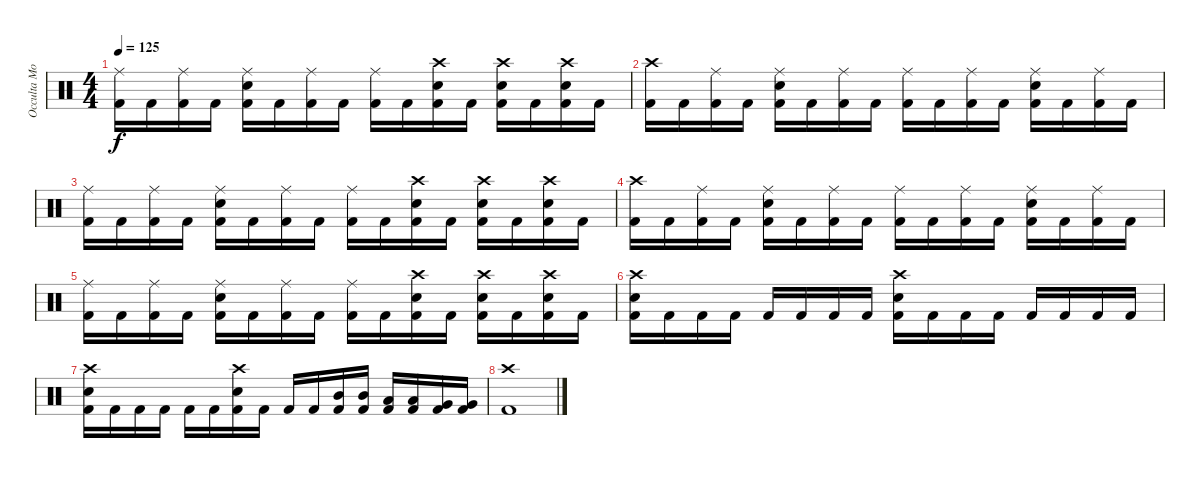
\track ("Occulta Mors" "Occulta Mo") {instrument percussion}
\staff {score}
\articulation defaults
\ts (4 4)
\tempo 125
\clef neutral
\ks c
("Ride (middle)" "Kick (hit) 2").16{dy f} "Kick (hit) 2".16 ("Ride (middle)" "Kick (hit) 2").16 "Kick (hit) 2".16 ("Ride (middle)" "Snare (hit) 2" "Kick (hit) 2").16 "Kick (hit) 2".16 ("Ride (middle)" "Kick (hit) 2").16 "Kick (hit) 2".16 ("Ride (middle)" "Kick (hit) 2").16 "Kick (hit) 2".16 ("Crash high (hit)" "Snare (hit) 2" "Kick (hit) 2").16 "Kick (hit) 2".16 ("Crash high (hit)" "Snare (hit) 2" "Kick (hit) 2").16 "Kick (hit) 2".16 ("Crash high (hit)" "Snare (hit) 2" "Kick (hit) 2").16 "Kick (hit) 2".16 |
("Crash high (hit)" "Kick (hit) 2").16 "Kick (hit) 2".16 ("Ride (middle)" "Kick (hit) 2").16 "Kick (hit) 2".16 ("Ride (middle)" "Snare (hit) 2" "Kick (hit) 2").16 "Kick (hit) 2".16 ("Ride (middle)" "Kick (hit) 2").16 "Kick (hit) 2".16 ("Ride (middle)" "Kick (hit) 2").16 "Kick (hit) 2".16 ("Ride (middle)" "Kick (hit) 2").16 "Kick (hit) 2".16 ("Ride (middle)" "Snare (hit) 2" "Kick (hit) 2").16 "Kick (hit) 2".16 ("Ride (middle)" "Kick (hit) 2").16 "Kick (hit) 2".16 |
("Ride (middle)" "Kick (hit) 2").16 "Kick (hit) 2".16 ("Ride (middle)" "Kick (hit) 2").16 "Kick (hit) 2".16 ("Ride (middle)" "Snare (hit) 2" "Kick (hit) 2").16 "Kick (hit) 2".16 ("Ride (middle)" "Kick (hit) 2").16 "Kick (hit) 2".16 ("Ride (middle)" "Kick (hit) 2").16 "Kick (hit) 2".16 ("Crash high (hit)" "Snare (hit) 2" "Kick (hit) 2").16 "Kick (hit) 2".16 ("Crash high (hit)" "Snare (hit) 2" "Kick (hit) 2").16 "Kick (hit) 2".16 ("Crash high (hit)" "Snare (hit) 2" "Kick (hit) 2").16 "Kick (hit) 2".16 |
("Crash high (hit)" "Kick (hit) 2").16 "Kick (hit) 2".16 ("Ride (middle)" "Kick (hit) 2").16 "Kick (hit) 2".16 ("Ride (middle)" "Snare (hit) 2" "Kick (hit) 2").16 "Kick (hit) 2".16 ("Ride (middle)" "Kick (hit) 2").16 "Kick (hit) 2".16 ("Ride (middle)" "Kick (hit) 2").16 "Kick (hit) 2".16 ("Ride (middle)" "Kick (hit) 2").16 "Kick (hit) 2".16 ("Ride (middle)" "Snare (hit) 2" "Kick (hit) 2").16 "Kick (hit) 2".16 ("Ride (middle)" "Kick (hit) 2").16 "Kick (hit) 2".16 |
("Ride (middle)" "Kick (hit) 2").16 "Kick (hit) 2".16 ("Ride (middle)" "Kick (hit) 2").16 "Kick (hit) 2".16 ("Ride (middle)" "Snare (hit) 2" "Kick (hit) 2").16 "Kick (hit) 2".16 ("Ride (middle)" "Kick (hit) 2").16 "Kick (hit) 2".16 ("Ride (middle)" "Kick (hit) 2").16 "Kick (hit) 2".16 ("Crash high (hit)" "Snare (hit) 2" "Kick (hit) 2").16 "Kick (hit) 2".16 ("Crash high (hit)" "Snare (hit) 2" "Kick (hit) 2").16 "Kick (hit) 2".16 ("Crash high (hit)" "Snare (hit) 2" "Kick (hit) 2").16 "Kick (hit) 2".16 |
("Crash high (hit)" "Snare (hit) 2" "Kick (hit) 2").16 "Kick (hit) 2".16 "Kick (hit) 2".16 "Kick (hit) 2".16 "Kick (hit) 2".16 "Kick (hit) 2".16 "Kick (hit) 2".16 "Kick (hit) 2".16 ("Crash high (hit)" "Snare (hit) 2" "Kick (hit) 2").16 "Kick (hit) 2".16 "Kick (hit) 2".16 "Kick (hit) 2".16 "Kick (hit) 2".16 "Kick (hit) 2".16 "Kick (hit) 2".16 "Kick (hit) 2".16 |
("Crash high (hit)" "Snare (hit) 2" "Kick (hit) 2").16 "Kick (hit) 2".16 "Kick (hit) 2".16 "Kick (hit) 2".16 "Kick (hit) 2".16 "Kick (hit) 2".16 ("Crash high (hit)" "Snare (hit) 2" "Kick (hit) 2").16 "Kick (hit) 2".16 "Kick (hit) 2".16 "Kick (hit) 2".16 ("Mid Tom (hit)" "Kick (hit) 2").16 ("Mid Tom (hit)" "Kick (hit) 2").16 ("Low Tom (hit)" "Kick (hit) 2").16 ("Low Tom (hit)" "Kick (hit) 2").16 ("Very Low Tom (hit)" "Kick (hit) 2").16 ("Very Low Tom (hit)" "Kick (hit) 2").16 |
("Crash high (hit)" "Kick (hit) 2").1
